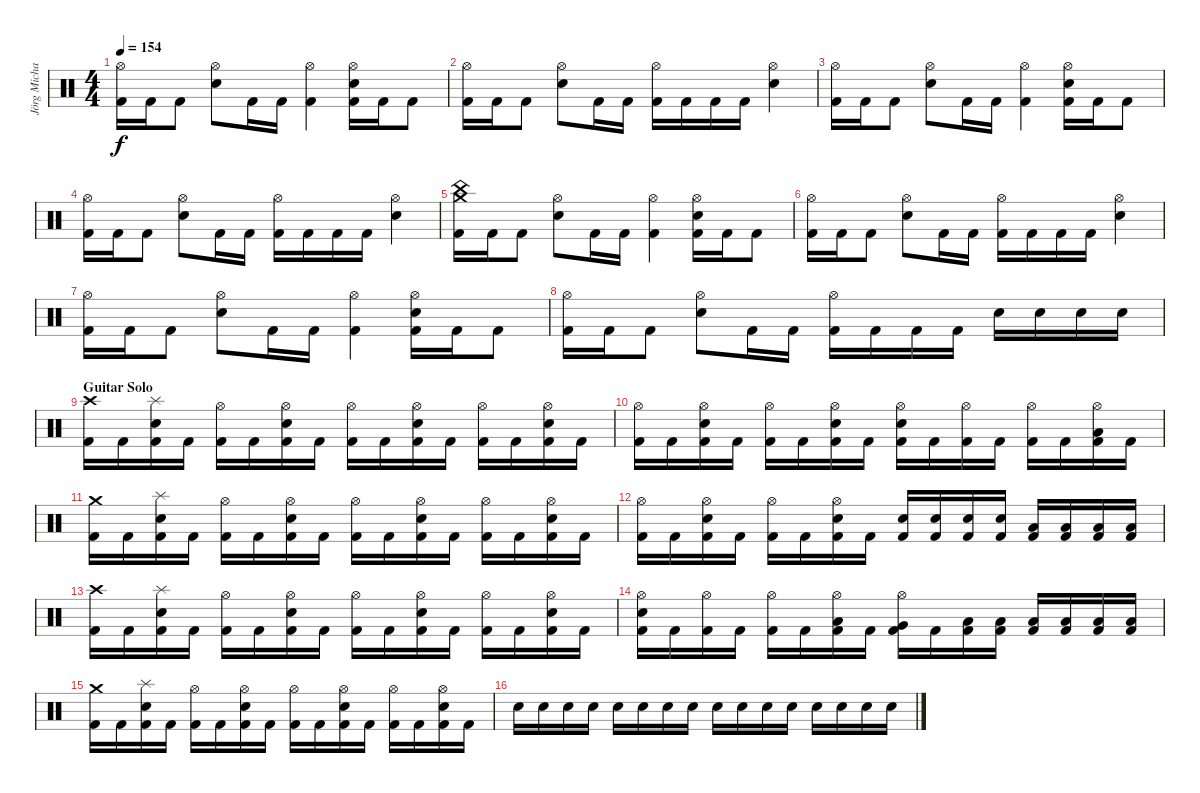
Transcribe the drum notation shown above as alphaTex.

\track ("Jörg Michael - Drums" "Jörg Micha") {instrument percussion}
\staff {score}
\articulation defaults
\ts (4 4)
\tempo 154
\clef neutral
\ks c
("Hi-Hat (open)" "Kick (hit) 2").16{dy f} "Kick (hit) 2".16 "Kick (hit) 2".8 ("Hi-Hat (open)" "Electric Snare (hit)").8 "Kick (hit) 2".16 "Kick (hit) 2".16 ("Hi-Hat (open)" "Kick (hit) 2").4 ("Hi-Hat (open)" "Electric Snare (hit)" "Kick (hit) 2").16 "Kick (hit) 2".16 "Kick (hit) 2".8 |
("Hi-Hat (open)" "Kick (hit) 2").16 "Kick (hit) 2".16 "Kick (hit) 2".8 ("Hi-Hat (open)" "Electric Snare (hit)").8 "Kick (hit) 2".16 "Kick (hit) 2".16 ("Hi-Hat (open)" "Kick (hit) 2").16 "Kick (hit) 2".16 "Kick (hit) 2".16 "Kick (hit) 2".16 ("Hi-Hat (open)" "Electric Snare (hit)").4 |
("Hi-Hat (open)" "Kick (hit) 2").16 "Kick (hit) 2".16 "Kick (hit) 2".8 ("Hi-Hat (open)" "Electric Snare (hit)").8 "Kick (hit) 2".16 "Kick (hit) 2".16 ("Hi-Hat (open)" "Kick (hit) 2").4 ("Hi-Hat (open)" "Electric Snare (hit)" "Kick (hit) 2").16 "Kick (hit) 2".16 "Kick (hit) 2".8 |
("Hi-Hat (open)" "Kick (hit) 2").16 "Kick (hit) 2".16 "Kick (hit) 2".8 ("Hi-Hat (open)" "Electric Snare (hit)").8 "Kick (hit) 2".16 "Kick (hit) 2".16 ("Hi-Hat (open)" "Kick (hit) 2").16 "Kick (hit) 2".16 "Kick (hit) 2".16 "Kick (hit) 2".16 ("Hi-Hat (open)" "Electric Snare (hit)").4 |
("Crash medium (hit)" "China (hit)" "Kick (hit) 2").16 "Kick (hit) 2".16 "Kick (hit) 2".8 ("Hi-Hat (open)" "Electric Snare (hit)").8 "Kick (hit) 2".16 "Kick (hit) 2".16 ("Hi-Hat (open)" "Kick (hit) 2").4 ("Hi-Hat (open)" "Electric Snare (hit)" "Kick (hit) 2").16 "Kick (hit) 2".16 "Kick (hit) 2".8 |
("Hi-Hat (open)" "Kick (hit) 2").16 "Kick (hit) 2".16 "Kick (hit) 2".8 ("Hi-Hat (open)" "Electric Snare (hit)").8 "Kick (hit) 2".16 "Kick (hit) 2".16 ("Hi-Hat (open)" "Kick (hit) 2").16 "Kick (hit) 2".16 "Kick (hit) 2".16 "Kick (hit) 2".16 ("Hi-Hat (open)" "Electric Snare (hit)").4 |
("Hi-Hat (open)" "Kick (hit) 2").16 "Kick (hit) 2".16 "Kick (hit) 2".8 ("Hi-Hat (open)" "Electric Snare (hit)").8 "Kick (hit) 2".16 "Kick (hit) 2".16 ("Hi-Hat (open)" "Kick (hit) 2").4 ("Hi-Hat (open)" "Electric Snare (hit)" "Kick (hit) 2").16 "Kick (hit) 2".16 "Kick (hit) 2".8 |
("Hi-Hat (open)" "Kick (hit) 2").16 "Kick (hit) 2".16 "Kick (hit) 2".8 ("Hi-Hat (open)" "Electric Snare (hit)").8 "Kick (hit) 2".16 "Kick (hit) 2".16 ("Hi-Hat (open)" "Kick (hit) 2").16 "Kick (hit) 2".16 "Kick (hit) 2".16 "Kick (hit) 2".16 "Electric Snare (hit)".16 "Electric Snare (hit)".16 "Electric Snare (hit)".16 "Electric Snare (hit)".16 |
\section ("" "Guitar Solo")
("Crash high (hit)" "Kick (hit) 2").16 "Kick (hit) 2".16 ("Splash (hit)" "Electric Snare (hit)" "Kick (hit) 2").16 "Kick (hit) 2".16 ("Hi-Hat (open)" "Kick (hit) 2").16 "Kick (hit) 2".16 ("Hi-Hat (open)" "Electric Snare (hit)" "Kick (hit) 2").16 "Kick (hit) 2".16 ("Hi-Hat (open)" "Kick (hit) 2").16 "Kick (hit) 2".16 ("Hi-Hat (open)" "Electric Snare (hit)" "Kick (hit) 2").16 "Kick (hit) 2".16 ("Hi-Hat (open)" "Kick (hit) 2").16 "Kick (hit) 2".16 ("Hi-Hat (open)" "Electric Snare (hit)" "Kick (hit) 2").16 "Kick (hit) 2".16 |
("Hi-Hat (open)" "Kick (hit) 2").16 "Kick (hit) 2".16 ("Hi-Hat (open)" "Electric Snare (hit)" "Kick (hit) 2").16 "Kick (hit) 2".16 ("Hi-Hat (open)" "Kick (hit) 2").16 "Kick (hit) 2".16 ("Hi-Hat (open)" "Electric Snare (hit)" "Kick (hit) 2").16 "Kick (hit) 2".16 ("Hi-Hat (open)" "Electric Snare (hit)" "Kick (hit) 2").16 "Kick (hit) 2".16 ("Hi-Hat (open)" "Kick (hit) 2").16 "Kick (hit) 2".16 ("Hi-Hat (open)" "Kick (hit) 2").16 "Kick (hit) 2".16 ("Hi-Hat (open)" "Low Tom (hit)" "Kick (hit) 2").16 "Kick (hit) 2".16 |
("Crash medium (hit)" "Kick (hit) 2").16 "Kick (hit) 2".16 ("Splash (hit)" "Electric Snare (hit)" "Kick (hit) 2").16 "Kick (hit) 2".16 ("Hi-Hat (open)" "Kick (hit) 2").16 "Kick (hit) 2".16 ("Hi-Hat (open)" "Electric Snare (hit)" "Kick (hit) 2").16 "Kick (hit) 2".16 ("Hi-Hat (open)" "Kick (hit) 2").16 "Kick (hit) 2".16 ("Hi-Hat (open)" "Electric Snare (hit)" "Kick (hit) 2").16 "Kick (hit) 2".16 ("Hi-Hat (open)" "Kick (hit) 2").16 "Kick (hit) 2".16 ("Hi-Hat (open)" "Electric Snare (hit)" "Kick (hit) 2").16 "Kick (hit) 2".16 |
("Hi-Hat (open)" "Kick (hit) 2").16 "Kick (hit) 2".16 ("Hi-Hat (open)" "Electric Snare (hit)" "Kick (hit) 2").16 "Kick (hit) 2".16 ("Hi-Hat (open)" "Kick (hit) 2").16 "Kick (hit) 2".16 ("Hi-Hat (open)" "Electric Snare (hit)" "Kick (hit) 2").16 "Kick (hit) 2".16 ("Electric Snare (hit)" "Kick (hit) 2").16 ("Electric Snare (hit)" "Kick (hit) 2").16 ("Electric Snare (hit)" "Kick (hit) 2").16 ("Electric Snare (hit)" "Kick (hit) 2").16 ("Low Tom (hit)" "Kick (hit) 2").16 ("Low Tom (hit)" "Kick (hit) 2").16 ("Low Tom (hit)" "Kick (hit) 2").16 ("Low Tom (hit)" "Kick (hit) 2").16 |
("Crash high (hit)" "Kick (hit) 2").16 "Kick (hit) 2".16 ("Splash (hit)" "Electric Snare (hit)" "Kick (hit) 2").16 "Kick (hit) 2".16 ("Hi-Hat (open)" "Kick (hit) 2").16 "Kick (hit) 2".16 ("Hi-Hat (open)" "Electric Snare (hit)" "Kick (hit) 2").16 "Kick (hit) 2".16 ("Hi-Hat (open)" "Kick (hit) 2").16 "Kick (hit) 2".16 ("Hi-Hat (open)" "Electric Snare (hit)" "Kick (hit) 2").16 "Kick (hit) 2".16 ("Hi-Hat (open)" "Kick (hit) 2").16 "Kick (hit) 2".16 ("Hi-Hat (open)" "Electric Snare (hit)" "Kick (hit) 2").16 "Kick (hit) 2".16 |
("Hi-Hat (open)" "Electric Snare (hit)" "Kick (hit) 2").16 "Kick (hit) 2".16 ("Hi-Hat (open)" "Kick (hit) 2").16 "Kick (hit) 2".16 ("Hi-Hat (open)" "Kick (hit) 2").16 "Kick (hit) 2".16 ("Hi-Hat (open)" "Low Tom (hit)" "Kick (hit) 2").16 "Kick (hit) 2".16 ("Hi-Hat (open)" "Very Low Tom (hit)" "Kick (hit) 2").16 "Kick (hit) 2".16 ("Low Floor Tom (hit)" "Kick (hit) 2").16 ("Low Floor Tom (hit)" "Kick (hit) 2").16 ("Low Floor Tom (hit)" "Kick (hit) 2").16 ("Low Floor Tom (hit)" "Kick (hit) 2").16 ("Low Floor Tom (hit)" "Kick (hit) 2").16 ("Low Floor Tom (hit)" "Kick (hit) 2").16 |
("Crash medium (hit)" "Kick (hit) 2").16 "Kick (hit) 2".16 ("Splash (hit)" "Electric Snare (hit)" "Kick (hit) 2").16 "Kick (hit) 2".16 ("Hi-Hat (open)" "Kick (hit) 2").16 "Kick (hit) 2".16 ("Hi-Hat (open)" "Electric Snare (hit)" "Kick (hit) 2").16 "Kick (hit) 2".16 ("Hi-Hat (open)" "Kick (hit) 2").16 "Kick (hit) 2".16 ("Hi-Hat (open)" "Electric Snare (hit)" "Kick (hit) 2").16 "Kick (hit) 2".16 ("Hi-Hat (open)" "Kick (hit) 2").16 "Kick (hit) 2".16 ("Hi-Hat (open)" "Electric Snare (hit)" "Kick (hit) 2").16 "Kick (hit) 2".16 |
"Electric Snare (hit)".16 "Electric Snare (hit)".16 "Electric Snare (hit)".16 "Electric Snare (hit)".16 "Electric Snare (hit)".16 "Electric Snare (hit)".16 "Electric Snare (hit)".16 "Electric Snare (hit)".16 "Electric Snare (hit)".16 "Electric Snare (hit)".16 "Electric Snare (hit)".16 "Electric Snare (hit)".16 "Electric Snare (hit)".16 "Electric Snare (hit)".16 "Electric Snare (hit)".16 "Electric Snare (hit)".16
